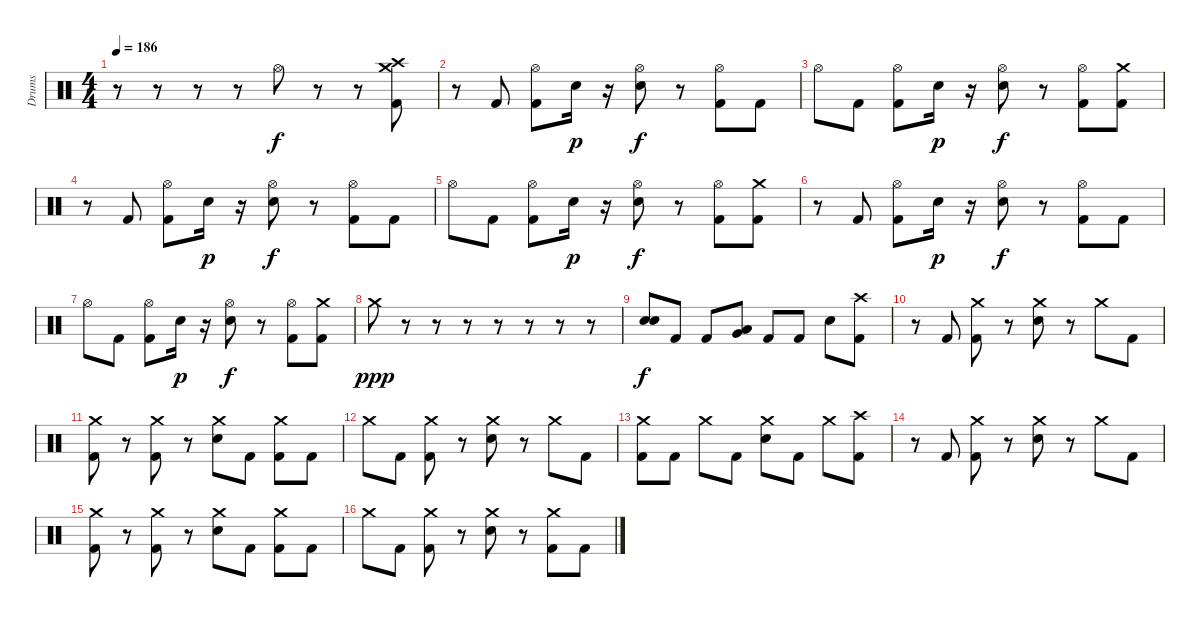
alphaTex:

\track ("Drums" "Drums") {instrument percussion}
\staff
\articulation defaults
\ts (4 4)
\tempo 186
\clef neutral
\ks c
r.8{dy f} r.8 r.8 r.8 "Hi-Hat (open)".8 r.8 r.8 ("Crash high (hit)" "Crash medium (hit)" "Kick (hit) 2").8 |
r.8 "Kick (hit) 2".8 ("Hi-Hat (open)" "Kick (hit) 2").8 "Electric Snare (hit)".16{dy p} r.16 ("Hi-Hat (open)" "Electric Snare (hit)").8{dy f} r.8 ("Hi-Hat (open)" "Kick (hit) 2").8 "Kick (hit) 2".8 |
"Hi-Hat (open)".8 "Kick (hit) 2".8 ("Hi-Hat (open)" "Kick (hit) 2").8 "Electric Snare (hit)".16{dy p} r.16 ("Hi-Hat (open)" "Electric Snare (hit)").8{dy f} r.8 ("Hi-Hat (open)" "Kick (hit) 2").8 ("Crash medium (hit)" "Kick (hit) 2").8 |
r.8 "Kick (hit) 2".8 ("Hi-Hat (open)" "Kick (hit) 2").8 "Electric Snare (hit)".16{dy p} r.16 ("Hi-Hat (open)" "Electric Snare (hit)").8{dy f} r.8 ("Hi-Hat (open)" "Kick (hit) 2").8 "Kick (hit) 2".8 |
"Hi-Hat (open)".8 "Kick (hit) 2".8 ("Hi-Hat (open)" "Kick (hit) 2").8 "Electric Snare (hit)".16{dy p} r.16 ("Hi-Hat (open)" "Electric Snare (hit)").8{dy f} r.8 ("Hi-Hat (open)" "Kick (hit) 2").8 ("Crash medium (hit)" "Kick (hit) 2").8 |
r.8 "Kick (hit) 2".8 ("Hi-Hat (open)" "Kick (hit) 2").8 "Electric Snare (hit)".16{dy p} r.16 ("Hi-Hat (open)" "Electric Snare (hit)").8{dy f} r.8 ("Hi-Hat (open)" "Kick (hit) 2").8 "Kick (hit) 2".8 |
"Hi-Hat (open)".8 "Kick (hit) 2".8 ("Hi-Hat (open)" "Kick (hit) 2").8 "Electric Snare (hit)".16{dy p} r.16 ("Hi-Hat (open)" "Electric Snare (hit)").8{dy f} r.8 ("Hi-Hat (open)" "Kick (hit) 2").8 ("Crash medium (hit)" "Kick (hit) 2").8 |
"Crash medium (hit)".8{dy ppp} r.8 r.8 r.8 r.8 r.8 r.8 r.8 |
("Electric Snare (hit)" "Electric Snare (hit)").8{bd 60 dy f} "Kick (hit) 2".8 "Kick (hit) 2".8 ("Low Floor Tom (hit)" "Very Low Tom (hit)").8 "Kick (hit) 2".8 "Kick (hit) 2".8 "Electric Snare (hit)".8 ("Crash high (hit)" "Kick (hit) 2").8 |
r.8 "Kick (hit) 2".8 ("Crash medium (hit)" "Kick (hit) 2").8 r.8 ("Crash medium (hit)" "Electric Snare (hit)").8 r.8 "Crash medium (hit)".8 "Kick (hit) 2".8 |
("Crash medium (hit)" "Kick (hit) 2").8 r.8 ("Crash medium (hit)" "Kick (hit) 2").8 r.8 ("Crash medium (hit)" "Electric Snare (hit)").8 "Kick (hit) 2".8 ("Crash medium (hit)" "Kick (hit) 2").8 "Kick (hit) 2".8 |
"Crash medium (hit)".8 "Kick (hit) 2".8 ("Crash medium (hit)" "Kick (hit) 2").8 r.8 ("Crash medium (hit)" "Electric Snare (hit)").8 r.8 "Crash medium (hit)".8 "Kick (hit) 2".8 |
("Crash medium (hit)" "Kick (hit) 2").8 "Kick (hit) 2".8 "Crash medium (hit)".8 "Kick (hit) 2".8 ("Crash medium (hit)" "Electric Snare (hit)").8 "Kick (hit) 2".8 "Crash medium (hit)".8 ("Crash high (hit)" "Kick (hit) 2").8 |
r.8 "Kick (hit) 2".8 ("Crash medium (hit)" "Kick (hit) 2").8 r.8 ("Crash medium (hit)" "Electric Snare (hit)").8 r.8 "Crash medium (hit)".8 "Kick (hit) 2".8 |
("Crash medium (hit)" "Kick (hit) 2").8 r.8 ("Crash medium (hit)" "Kick (hit) 2").8 r.8 ("Crash medium (hit)" "Electric Snare (hit)").8 "Kick (hit) 2".8 ("Crash medium (hit)" "Kick (hit) 2").8 "Kick (hit) 2".8 |
"Crash medium (hit)".8 "Kick (hit) 2".8 ("Crash medium (hit)" "Kick (hit) 2").8 r.8 ("Crash medium (hit)" "Electric Snare (hit)").8 r.8 ("Crash medium (hit)" "Kick (hit) 2").8 "Kick (hit) 2".8
